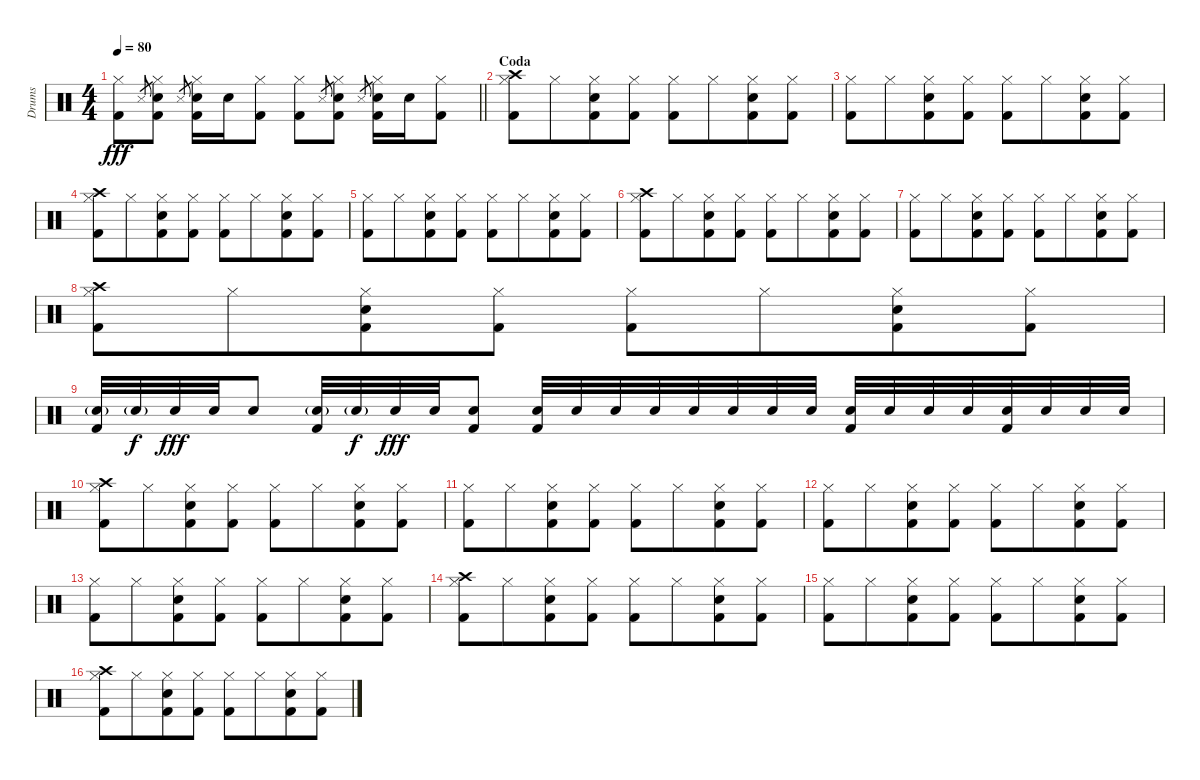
\track ("Drums" "Drums") {instrument percussion}
\staff {score}
\articulation defaults
\ts (4 4)
\tempo 80
\clef neutral
\barLineRight lightlight
\ks c
("Hi-Hat (closed)" "Kick (hit) 2").8{dy fff} "Snare (side stick) 3"{h}.8{gr} ("Hi-Hat (closed)" "Snare (hit) 2" "Kick (hit) 2").8 "Snare (side stick) 3"{h}.8{gr} ("Hi-Hat (closed)" "Snare (hit) 2" "Kick (hit) 2").16 "Snare (hit) 2".16 ("Hi-Hat (closed)" "Kick (hit) 2").8 ("Hi-Hat (closed)" "Kick (hit) 2").8 "Snare (side stick) 3"{h}.8{gr} ("Hi-Hat (closed)" "Snare (hit) 2" "Kick (hit) 2").8 "Snare (side stick) 3"{h}.8{gr} ("Hi-Hat (closed)" "Snare (hit) 2" "Kick (hit) 2").16 "Snare (hit) 2".16 ("Hi-Hat (closed)" "Kick (hit) 2").8 |
\section ("" "Coda")
("Hi-Hat (closed)" "Crash high (hit)" "Kick (hit) 2").8 "Hi-Hat (closed)".8{beam merge} ("Hi-Hat (closed)" "Snare (hit) 2" "Kick (hit) 2").8 ("Hi-Hat (closed)" "Kick (hit) 2").8 ("Hi-Hat (closed)" "Kick (hit) 2").8 "Hi-Hat (closed)".8{beam merge} ("Hi-Hat (closed)" "Snare (hit) 2" "Kick (hit) 2").8 ("Hi-Hat (closed)" "Kick (hit) 2").8 |
("Hi-Hat (closed)" "Kick (hit) 2").8 "Hi-Hat (closed)".8{beam merge} ("Hi-Hat (closed)" "Snare (hit) 2" "Kick (hit) 2").8 ("Hi-Hat (closed)" "Kick (hit) 2").8 ("Hi-Hat (closed)" "Kick (hit) 2").8 "Hi-Hat (closed)".8{beam merge} ("Hi-Hat (closed)" "Snare (hit) 2" "Kick (hit) 2").8 ("Hi-Hat (closed)" "Kick (hit) 2").8 |
("Hi-Hat (closed)" "Crash high (hit)" "Kick (hit) 2").8 "Hi-Hat (closed)".8{beam merge} ("Hi-Hat (closed)" "Snare (hit) 2" "Kick (hit) 2").8 ("Hi-Hat (closed)" "Kick (hit) 2").8 ("Hi-Hat (closed)" "Kick (hit) 2").8 "Hi-Hat (closed)".8{beam merge} ("Hi-Hat (closed)" "Snare (hit) 2" "Kick (hit) 2").8 ("Hi-Hat (closed)" "Kick (hit) 2").8 |
("Hi-Hat (closed)" "Kick (hit) 2").8 "Hi-Hat (closed)".8{beam merge} ("Hi-Hat (closed)" "Snare (hit) 2" "Kick (hit) 2").8 ("Hi-Hat (closed)" "Kick (hit) 2").8 ("Hi-Hat (closed)" "Kick (hit) 2").8 "Hi-Hat (closed)".8{beam merge} ("Hi-Hat (closed)" "Snare (hit) 2" "Kick (hit) 2").8 ("Hi-Hat (closed)" "Kick (hit) 2").8 |
("Hi-Hat (closed)" "Crash high (hit)" "Kick (hit) 2").8 "Hi-Hat (closed)".8{beam merge} ("Hi-Hat (closed)" "Snare (hit) 2" "Kick (hit) 2").8 ("Hi-Hat (closed)" "Kick (hit) 2").8 ("Hi-Hat (closed)" "Kick (hit) 2").8 "Hi-Hat (closed)".8{beam merge} ("Hi-Hat (closed)" "Snare (hit) 2" "Kick (hit) 2").8 ("Hi-Hat (closed)" "Kick (hit) 2").8 |
("Hi-Hat (closed)" "Kick (hit) 2").8 "Hi-Hat (closed)".8{beam merge} ("Hi-Hat (closed)" "Snare (hit) 2" "Kick (hit) 2").8 ("Hi-Hat (closed)" "Kick (hit) 2").8 ("Hi-Hat (closed)" "Kick (hit) 2").8 "Hi-Hat (closed)".8{beam merge} ("Hi-Hat (closed)" "Snare (hit) 2" "Kick (hit) 2").8 ("Hi-Hat (closed)" "Kick (hit) 2").8 |
("Hi-Hat (closed)" "Crash high (hit)" "Kick (hit) 2").8 "Hi-Hat (closed)".8{beam merge} ("Hi-Hat (closed)" "Snare (hit) 2" "Kick (hit) 2").8 ("Hi-Hat (closed)" "Kick (hit) 2").8 ("Hi-Hat (closed)" "Kick (hit) 2").8 "Hi-Hat (closed)".8{beam merge} ("Hi-Hat (closed)" "Snare (hit) 2" "Kick (hit) 2").8 ("Hi-Hat (closed)" "Kick (hit) 2").8 |
("Snare (hit) 2"{g} "Kick (hit) 2").32 "Snare (hit) 2"{g}.32{dy f} "Snare (hit) 2".32{dy fff} "Snare (hit) 2".32 "Snare (hit) 2".8 ("Snare (hit) 2"{g} "Kick (hit) 2").32 "Snare (hit) 2"{g}.32{dy f} "Snare (hit) 2".32{dy fff} "Snare (hit) 2".32 ("Snare (hit) 2" "Kick (hit) 2").8 ("Snare (hit) 2" "Kick (hit) 2").32 "Snare (hit) 2".32 "Snare (hit) 2".32 "Snare (hit) 2".32 "Snare (hit) 2".32 "Snare (hit) 2".32 "Snare (hit) 2".32 "Snare (hit) 2".32 ("Snare (hit) 2" "Kick (hit) 2").32 "Snare (hit) 2".32 "Snare (hit) 2".32 "Snare (hit) 2".32 ("Snare (hit) 2" "Kick (hit) 2").32 "Snare (hit) 2".32 "Snare (hit) 2".32 "Snare (hit) 2".32 |
("Hi-Hat (closed)" "Crash high (hit)" "Kick (hit) 2").8 "Hi-Hat (closed)".8{beam merge} ("Hi-Hat (closed)" "Snare (hit) 2" "Kick (hit) 2").8 ("Hi-Hat (closed)" "Kick (hit) 2").8 ("Hi-Hat (closed)" "Kick (hit) 2").8 "Hi-Hat (closed)".8{beam merge} ("Hi-Hat (closed)" "Snare (hit) 2" "Kick (hit) 2").8 ("Hi-Hat (closed)" "Kick (hit) 2").8 |
("Hi-Hat (closed)" "Kick (hit) 2").8 "Hi-Hat (closed)".8{beam merge} ("Hi-Hat (closed)" "Snare (hit) 2" "Kick (hit) 2").8 ("Hi-Hat (closed)" "Kick (hit) 2").8 ("Hi-Hat (closed)" "Kick (hit) 2").8 "Hi-Hat (closed)".8{beam merge} ("Hi-Hat (closed)" "Snare (hit) 2" "Kick (hit) 2").8 ("Hi-Hat (closed)" "Kick (hit) 2").8 |
("Hi-Hat (closed)" "Kick (hit) 2").8 "Hi-Hat (closed)".8{beam merge} ("Hi-Hat (closed)" "Snare (hit) 2" "Kick (hit) 2").8 ("Hi-Hat (closed)" "Kick (hit) 2").8 ("Hi-Hat (closed)" "Kick (hit) 2").8 "Hi-Hat (closed)".8{beam merge} ("Hi-Hat (closed)" "Snare (hit) 2" "Kick (hit) 2").8 ("Hi-Hat (closed)" "Kick (hit) 2").8 |
("Hi-Hat (closed)" "Kick (hit) 2").8 "Hi-Hat (closed)".8{beam merge} ("Hi-Hat (closed)" "Snare (hit) 2" "Kick (hit) 2").8 ("Hi-Hat (closed)" "Kick (hit) 2").8 ("Hi-Hat (closed)" "Kick (hit) 2").8 "Hi-Hat (closed)".8{beam merge} ("Hi-Hat (closed)" "Snare (hit) 2" "Kick (hit) 2").8 ("Hi-Hat (closed)" "Kick (hit) 2").8 |
("Hi-Hat (closed)" "Crash high (hit)" "Kick (hit) 2").8 "Hi-Hat (closed)".8{beam merge} ("Hi-Hat (closed)" "Snare (hit) 2" "Kick (hit) 2").8 ("Hi-Hat (closed)" "Kick (hit) 2").8 ("Hi-Hat (closed)" "Kick (hit) 2").8 "Hi-Hat (closed)".8{beam merge} ("Hi-Hat (closed)" "Snare (hit) 2" "Kick (hit) 2").8 ("Hi-Hat (closed)" "Kick (hit) 2").8 |
("Hi-Hat (closed)" "Kick (hit) 2").8 "Hi-Hat (closed)".8{beam merge} ("Hi-Hat (closed)" "Snare (hit) 2" "Kick (hit) 2").8 ("Hi-Hat (closed)" "Kick (hit) 2").8 ("Hi-Hat (closed)" "Kick (hit) 2").8 "Hi-Hat (closed)".8{beam merge} ("Hi-Hat (closed)" "Snare (hit) 2" "Kick (hit) 2").8 ("Hi-Hat (closed)" "Kick (hit) 2").8 |
("Hi-Hat (closed)" "Crash high (hit)" "Kick (hit) 2").8 "Hi-Hat (closed)".8{beam merge} ("Hi-Hat (closed)" "Snare (hit) 2" "Kick (hit) 2").8 ("Hi-Hat (closed)" "Kick (hit) 2").8 ("Hi-Hat (closed)" "Kick (hit) 2").8 "Hi-Hat (closed)".8{beam merge} ("Hi-Hat (closed)" "Snare (hit) 2" "Kick (hit) 2").8 ("Hi-Hat (closed)" "Kick (hit) 2").8
